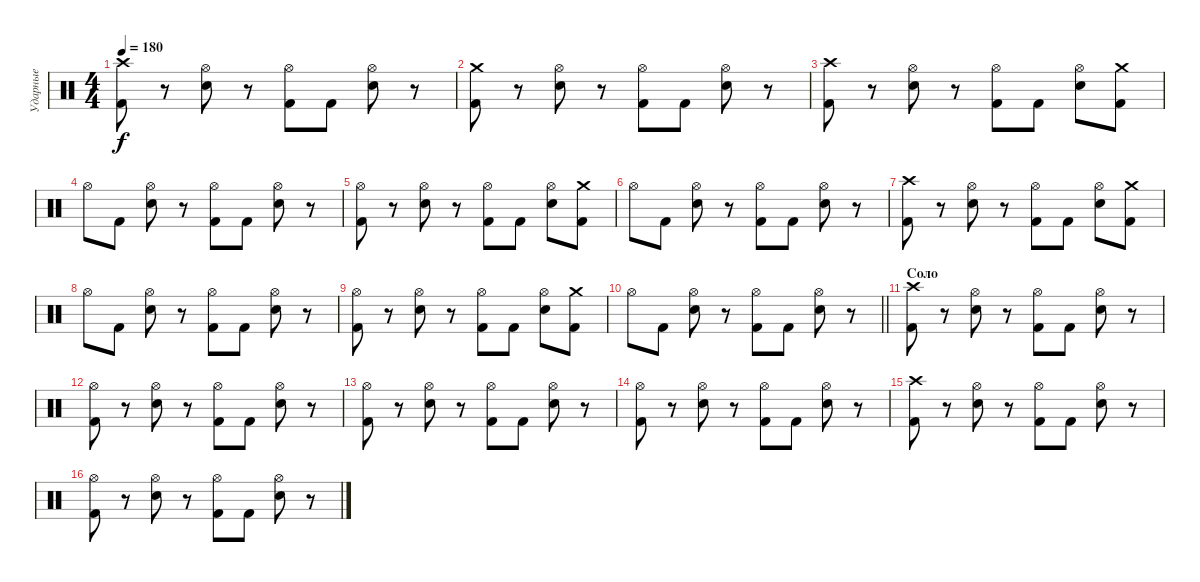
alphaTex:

\track ("Ударные" "Ударные") {instrument percussion}
\staff {score}
\articulation defaults
\ts (4 4)
\tempo 180
\clef neutral
\ks c
("Crash high (hit)" "Kick (hit) 2").8{dy f} r.8 ("Hi-Hat (open)" "Electric Snare (hit)").8 r.8 ("Hi-Hat (open)" "Kick (hit) 2").8 "Kick (hit) 2".8 ("Hi-Hat (open)" "Electric Snare (hit)").8 r.8 |
("Crash medium (hit)" "Kick (hit) 2").8 r.8 ("Hi-Hat (open)" "Electric Snare (hit)").8 r.8 ("Hi-Hat (open)" "Kick (hit) 2").8 "Kick (hit) 2".8 ("Hi-Hat (open)" "Electric Snare (hit)").8 r.8 |
("Crash high (hit)" "Kick (hit) 2").8 r.8 ("Hi-Hat (open)" "Electric Snare (hit)").8 r.8 ("Hi-Hat (open)" "Kick (hit) 2").8 "Kick (hit) 2".8 ("Hi-Hat (open)" "Electric Snare (hit)").8 ("Crash medium (hit)" "Kick (hit) 2").8 |
"Hi-Hat (open)".8 "Kick (hit) 2".8 ("Hi-Hat (open)" "Electric Snare (hit)").8 r.8 ("Hi-Hat (open)" "Kick (hit) 2").8 "Kick (hit) 2".8 ("Hi-Hat (open)" "Electric Snare (hit)").8 r.8 |
("Hi-Hat (open)" "Kick (hit) 2").8 r.8 ("Hi-Hat (open)" "Electric Snare (hit)").8 r.8 ("Hi-Hat (open)" "Kick (hit) 2").8 "Kick (hit) 2".8 ("Hi-Hat (open)" "Electric Snare (hit)").8 ("Crash medium (hit)" "Kick (hit) 2").8 |
"Hi-Hat (open)".8 "Kick (hit) 2".8 ("Hi-Hat (open)" "Electric Snare (hit)").8 r.8 ("Hi-Hat (open)" "Kick (hit) 2").8 "Kick (hit) 2".8 ("Hi-Hat (open)" "Electric Snare (hit)").8 r.8 |
("Crash high (hit)" "Kick (hit) 2").8 r.8 ("Hi-Hat (open)" "Electric Snare (hit)").8 r.8 ("Hi-Hat (open)" "Kick (hit) 2").8 "Kick (hit) 2".8 ("Hi-Hat (open)" "Electric Snare (hit)").8 ("Crash medium (hit)" "Kick (hit) 2").8 |
"Hi-Hat (open)".8 "Kick (hit) 2".8 ("Hi-Hat (open)" "Electric Snare (hit)").8 r.8 ("Hi-Hat (open)" "Kick (hit) 2").8 "Kick (hit) 2".8 ("Hi-Hat (open)" "Electric Snare (hit)").8 r.8 |
("Hi-Hat (open)" "Kick (hit) 2").8 r.8 ("Hi-Hat (open)" "Electric Snare (hit)").8 r.8 ("Hi-Hat (open)" "Kick (hit) 2").8 "Kick (hit) 2".8 ("Hi-Hat (open)" "Electric Snare (hit)").8 ("Crash medium (hit)" "Kick (hit) 2").8 |
\barLineRight lightlight "Hi-Hat (open)".8 "Kick (hit) 2".8
("Hi-Hat (open)" "Electric Snare (hit)").8 r.8 ("Hi-Hat (open)" "Kick (hit) 2").8 "Kick (hit) 2".8 ("Hi-Hat (open)" "Electric Snare (hit)").8 r.8 |
\section ("" "Соло")
("Crash high (hit)" "Kick (hit) 2").8 r.8 ("Hi-Hat (open)" "Electric Snare (hit)").8 r.8 ("Hi-Hat (open)" "Kick (hit) 2").8 "Kick (hit) 2".8 ("Hi-Hat (open)" "Electric Snare (hit)").8 r.8 |
("Hi-Hat (open)" "Kick (hit) 2").8 r.8 ("Hi-Hat (open)" "Electric Snare (hit)").8 r.8 ("Hi-Hat (open)" "Kick (hit) 2").8 "Kick (hit) 2".8 ("Hi-Hat (open)" "Electric Snare (hit)").8 r.8 |
("Hi-Hat (open)" "Kick (hit) 2").8 r.8 ("Hi-Hat (open)" "Electric Snare (hit)").8 r.8 ("Hi-Hat (open)" "Kick (hit) 2").8 "Kick (hit) 2".8 ("Hi-Hat (open)" "Electric Snare (hit)").8 r.8 |
("Hi-Hat (open)" "Kick (hit) 2").8 r.8 ("Hi-Hat (open)" "Electric Snare (hit)").8 r.8 ("Hi-Hat (open)" "Kick (hit) 2").8 "Kick (hit) 2".8 ("Hi-Hat (open)" "Electric Snare (hit)").8 r.8 |
("Crash high (hit)" "Kick (hit) 2").8 r.8 ("Hi-Hat (open)" "Electric Snare (hit)").8 r.8 ("Hi-Hat (open)" "Kick (hit) 2").8 "Kick (hit) 2".8 ("Hi-Hat (open)" "Electric Snare (hit)").8 r.8 |
("Hi-Hat (open)" "Kick (hit) 2").8 r.8 ("Hi-Hat (open)" "Electric Snare (hit)").8 r.8 ("Hi-Hat (open)" "Kick (hit) 2").8 "Kick (hit) 2".8 ("Hi-Hat (open)" "Electric Snare (hit)").8 r.8
